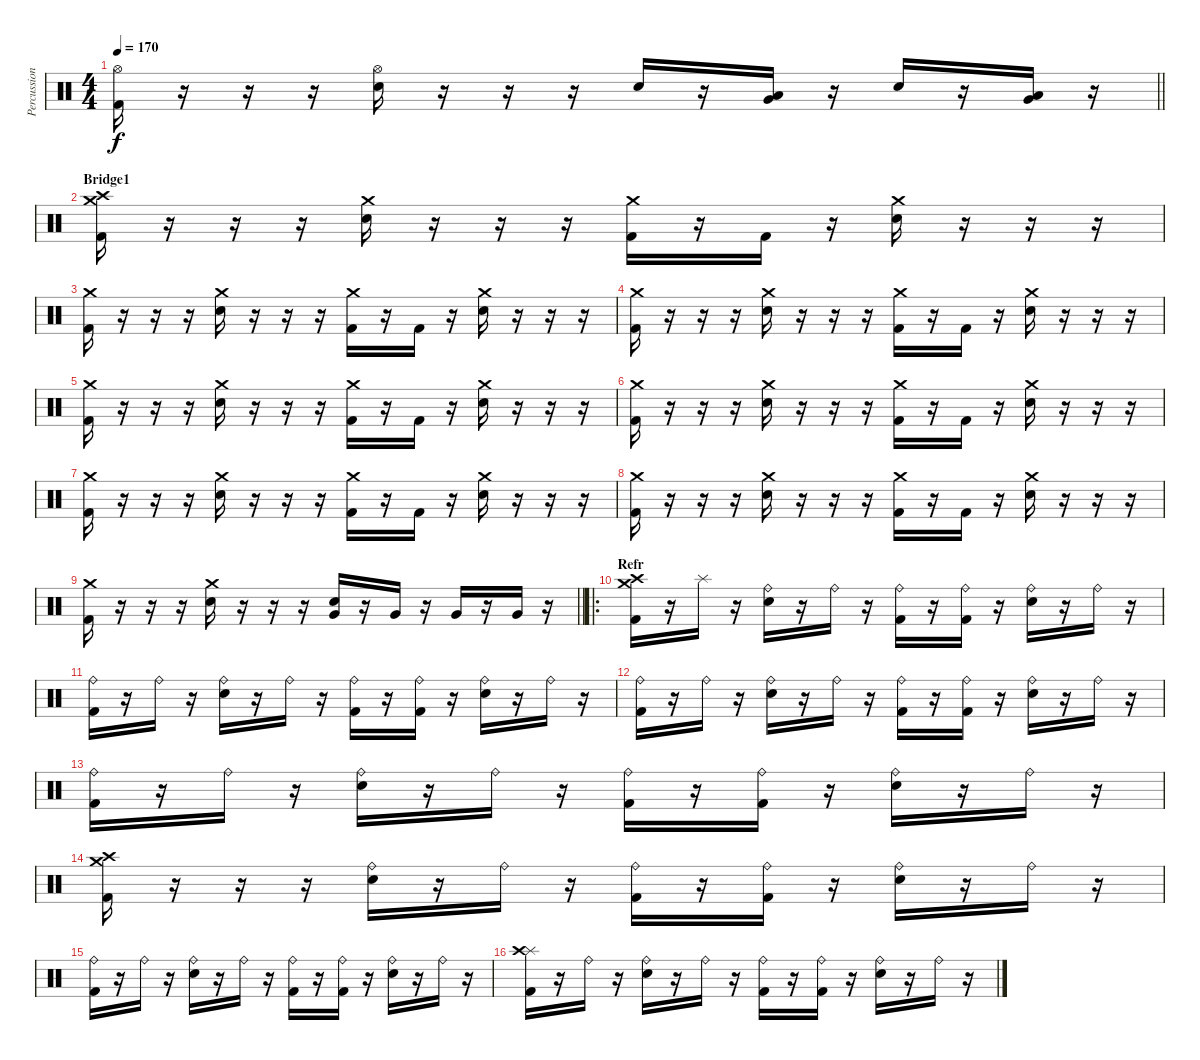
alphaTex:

\track ("Percussion" "Percussion") {instrument percussion}
\staff {score}
\articulation defaults
\ts (4 4)
\tempo 170
\clef neutral
\barLineRight lightlight
\ks c
("Hi-Hat (open)" "Kick (hit) 2").16{dy f} r.16 r.16 r.16 ("Hi-Hat (open)" "Electric Snare (hit)").16 r.16 r.16 r.16 "Electric Snare (hit)".16 r.16 ("Very Low Tom (hit)" "Low Floor Tom (hit)").16 r.16 "Electric Snare (hit)".16 r.16 ("Very Low Tom (hit)" "Low Floor Tom (hit)").16 r.16 |
\section ("" "Bridge1")
("Crash medium (hit)" "Crash high (hit)" "Kick (hit) 2").16 r.16 r.16 r.16 ("Crash medium (hit)" "Electric Snare (hit)").16 r.16 r.16 r.16 ("Crash medium (hit)" "Kick (hit) 2").16 r.16 "Kick (hit) 2".16 r.16 ("Crash medium (hit)" "Electric Snare (hit)").16 r.16 r.16 r.16 |
("Crash medium (hit)" "Kick (hit) 2").16 r.16 r.16 r.16 ("Crash medium (hit)" "Electric Snare (hit)").16 r.16 r.16 r.16 ("Crash medium (hit)" "Kick (hit) 2").16 r.16 "Kick (hit) 2".16 r.16 ("Crash medium (hit)" "Electric Snare (hit)").16 r.16 r.16 r.16 |
("Crash medium (hit)" "Kick (hit) 2").16 r.16 r.16 r.16 ("Crash medium (hit)" "Electric Snare (hit)").16 r.16 r.16 r.16 ("Crash medium (hit)" "Kick (hit) 2").16 r.16 "Kick (hit) 2".16 r.16 ("Crash medium (hit)" "Electric Snare (hit)").16 r.16 r.16 r.16 |
("Crash medium (hit)" "Kick (hit) 2").16 r.16 r.16 r.16 ("Crash medium (hit)" "Electric Snare (hit)").16 r.16 r.16 r.16 ("Crash medium (hit)" "Kick (hit) 2").16 r.16 "Kick (hit) 2".16 r.16 ("Crash medium (hit)" "Electric Snare (hit)").16 r.16 r.16 r.16 |
("Crash medium (hit)" "Kick (hit) 2").16 r.16 r.16 r.16 ("Crash medium (hit)" "Electric Snare (hit)").16 r.16 r.16 r.16 ("Crash medium (hit)" "Kick (hit) 2").16 r.16 "Kick (hit) 2".16 r.16 ("Crash medium (hit)" "Electric Snare (hit)").16 r.16 r.16 r.16 |
("Crash medium (hit)" "Kick (hit) 2").16 r.16 r.16 r.16 ("Crash medium (hit)" "Electric Snare (hit)").16 r.16 r.16 r.16 ("Crash medium (hit)" "Kick (hit) 2").16 r.16 "Kick (hit) 2".16 r.16 ("Crash medium (hit)" "Electric Snare (hit)").16 r.16 r.16 r.16 |
("Crash medium (hit)" "Kick (hit) 2").16 r.16 r.16 r.16 ("Crash medium (hit)" "Electric Snare (hit)").16 r.16 r.16 r.16 ("Crash medium (hit)" "Kick (hit) 2").16 r.16 "Kick (hit) 2".16 r.16 ("Crash medium (hit)" "Electric Snare (hit)").16 r.16 r.16 r.16 |
\barLineRight lightlight
("Crash medium (hit)" "Kick (hit) 2").16 r.16 r.16 r.16 ("Crash medium (hit)" "Electric Snare (hit)").16 r.16 r.16 r.16 ("Electric Snare (hit)" "Very Low Tom (hit)").16 r.16 "Very Low Tom (hit)".16 r.16 "Very Low Tom (hit)".16 r.16 "Very Low Tom (hit)".16 r.16 |
\ro
\section ("" "Refr")
("Crash medium (hit)" "Crash high (hit)" "Kick (hit) 2").16 r.16 "Splash (hit)".16 r.16 ("Ride (bell)" "Electric Snare (hit)").16 r.16 "Ride (bell)".16 r.16 ("Ride (bell)" "Kick (hit) 2").16 r.16 ("Ride (bell)" "Kick (hit) 2").16 r.16 ("Ride (bell)" "Electric Snare (hit)").16 r.16 "Ride (bell)".16 r.16 |
("Ride (bell)" "Kick (hit) 2").16 r.16 "Ride (bell)".16 r.16 ("Ride (bell)" "Electric Snare (hit)").16 r.16 "Ride (bell)".16 r.16 ("Ride (bell)" "Kick (hit) 2").16 r.16 ("Ride (bell)" "Kick (hit) 2").16 r.16 ("Ride (bell)" "Electric Snare (hit)").16 r.16 "Ride (bell)".16 r.16 |
("Ride (bell)" "Kick (hit) 2").16 r.16 "Ride (bell)".16 r.16 ("Ride (bell)" "Electric Snare (hit)").16 r.16 "Ride (bell)".16 r.16 ("Ride (bell)" "Kick (hit) 2").16 r.16 ("Ride (bell)" "Kick (hit) 2").16 r.16 ("Ride (bell)" "Electric Snare (hit)").16 r.16 "Ride (bell)".16 r.16 |
("Ride (bell)" "Kick (hit) 2").16 r.16 "Ride (bell)".16 r.16 ("Ride (bell)" "Electric Snare (hit)").16 r.16 "Ride (bell)".16 r.16 ("Ride (bell)" "Kick (hit) 2").16 r.16 ("Ride (bell)" "Kick (hit) 2").16 r.16 ("Ride (bell)" "Electric Snare (hit)").16 r.16 "Ride (bell)".16 r.16 |
("Crash medium (hit)" "Crash high (hit)" "Kick (hit) 2").16 r.16 r.16 r.16 ("Ride (bell)" "Electric Snare (hit)").16 r.16 "Ride (bell)".16 r.16 ("Ride (bell)" "Kick (hit) 2").16 r.16 ("Ride (bell)" "Kick (hit) 2").16 r.16 ("Ride (bell)" "Electric Snare (hit)").16 r.16 "Ride (bell)".16 r.16 |
("Ride (bell)" "Kick (hit) 2").16 r.16 "Ride (bell)".16 r.16 ("Ride (bell)" "Electric Snare (hit)").16 r.16 "Ride (bell)".16 r.16 ("Ride (bell)" "Kick (hit) 2").16 r.16 ("Ride (bell)" "Kick (hit) 2").16 r.16 ("Ride (bell)" "Electric Snare (hit)").16 r.16 "Ride (bell)".16 r.16 |
("Splash (hit)" "Crash high (hit)" "Kick (hit) 2").16 r.16 "Ride (bell)".16 r.16 ("Ride (bell)" "Electric Snare (hit)").16 r.16 "Ride (bell)".16 r.16 ("Ride (bell)" "Kick (hit) 2").16 r.16 ("Ride (bell)" "Kick (hit) 2").16 r.16 ("Ride (bell)" "Electric Snare (hit)").16 r.16 "Ride (bell)".16 r.16
